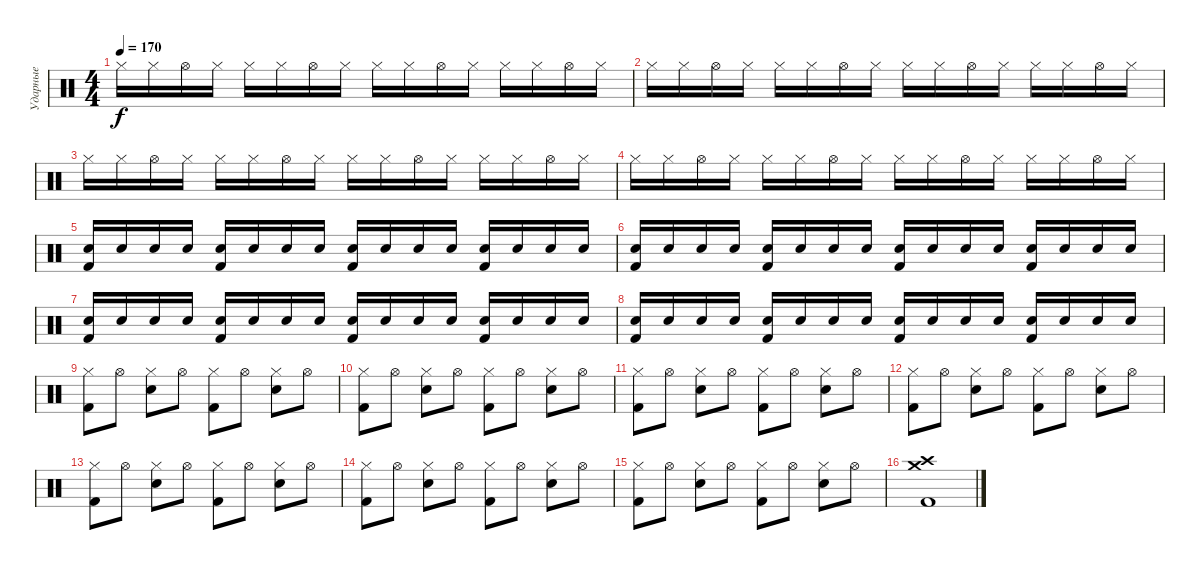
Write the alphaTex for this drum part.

\track ("Ударные" "Ударные") {instrument percussion}
\staff {score}
\articulation defaults
\ts (4 4)
\tempo 170
\clef neutral
\ks c "Hi-Hat (closed)".16{dy f} "Hi-Hat (closed)".16 "Hi-Hat (open)".16 "Hi-Hat (closed)".16 "Hi-Hat (closed)".16 "Hi-Hat (closed)".16 "Hi-Hat (open)".16 "Hi-Hat (closed)".16 "Hi-Hat (closed)".16 "Hi-Hat (closed)".16 "Hi-Hat (open)".16 "Hi-Hat (closed)".16 "Hi-Hat (closed)".16 "Hi-Hat (closed)".16 "Hi-Hat (open)".16 "Hi-Hat (closed)".16
|
"Hi-Hat (closed)".16 "Hi-Hat (closed)".16 "Hi-Hat (open)".16 "Hi-Hat (closed)".16 "Hi-Hat (closed)".16 "Hi-Hat (closed)".16 "Hi-Hat (open)".16 "Hi-Hat (closed)".16 "Hi-Hat (closed)".16 "Hi-Hat (closed)".16 "Hi-Hat (open)".16 "Hi-Hat (closed)".16 "Hi-Hat (closed)".16 "Hi-Hat (closed)".16 "Hi-Hat (open)".16 "Hi-Hat (closed)".16 |
"Hi-Hat (closed)".16 "Hi-Hat (closed)".16 "Hi-Hat (open)".16 "Hi-Hat (closed)".16 "Hi-Hat (closed)".16 "Hi-Hat (closed)".16 "Hi-Hat (open)".16 "Hi-Hat (closed)".16 "Hi-Hat (closed)".16 "Hi-Hat (closed)".16 "Hi-Hat (open)".16 "Hi-Hat (closed)".16 "Hi-Hat (closed)".16 "Hi-Hat (closed)".16 "Hi-Hat (open)".16 "Hi-Hat (closed)".16 |
"Hi-Hat (closed)".16 "Hi-Hat (closed)".16 "Hi-Hat (open)".16 "Hi-Hat (closed)".16 "Hi-Hat (closed)".16 "Hi-Hat (closed)".16 "Hi-Hat (open)".16 "Hi-Hat (closed)".16 "Hi-Hat (closed)".16 "Hi-Hat (closed)".16 "Hi-Hat (open)".16 "Hi-Hat (closed)".16 "Hi-Hat (closed)".16 "Hi-Hat (closed)".16 "Hi-Hat (open)".16 "Hi-Hat (closed)".16 |
("Kick (hit) 2" "Snare (hit) 2").16 "Snare (hit) 2".16 "Snare (hit) 2".16 "Snare (hit) 2".16 ("Kick (hit) 2" "Snare (hit) 2").16 "Snare (hit) 2".16 "Snare (hit) 2".16 "Snare (hit) 2".16 ("Kick (hit) 2" "Snare (hit) 2").16 "Snare (hit) 2".16 "Snare (hit) 2".16 "Snare (hit) 2".16 ("Kick (hit) 2" "Snare (hit) 2").16 "Snare (hit) 2".16 "Snare (hit) 2".16 "Snare (hit) 2".16 |
("Kick (hit) 2" "Snare (hit) 2").16 "Snare (hit) 2".16 "Snare (hit) 2".16 "Snare (hit) 2".16 ("Kick (hit) 2" "Snare (hit) 2").16 "Snare (hit) 2".16 "Snare (hit) 2".16 "Snare (hit) 2".16 ("Kick (hit) 2" "Snare (hit) 2").16 "Snare (hit) 2".16 "Snare (hit) 2".16 "Snare (hit) 2".16 ("Kick (hit) 2" "Snare (hit) 2").16 "Snare (hit) 2".16 "Snare (hit) 2".16 "Snare (hit) 2".16 |
("Kick (hit) 2" "Snare (hit) 2").16 "Snare (hit) 2".16 "Snare (hit) 2".16 "Snare (hit) 2".16 ("Kick (hit) 2" "Snare (hit) 2").16 "Snare (hit) 2".16 "Snare (hit) 2".16 "Snare (hit) 2".16 ("Kick (hit) 2" "Snare (hit) 2").16 "Snare (hit) 2".16 "Snare (hit) 2".16 "Snare (hit) 2".16 ("Kick (hit) 2" "Snare (hit) 2").16 "Snare (hit) 2".16 "Snare (hit) 2".16 "Snare (hit) 2".16 |
("Kick (hit) 2" "Snare (hit) 2").16 "Snare (hit) 2".16 "Snare (hit) 2".16 "Snare (hit) 2".16 ("Kick (hit) 2" "Snare (hit) 2").16 "Snare (hit) 2".16 "Snare (hit) 2".16 "Snare (hit) 2".16 ("Kick (hit) 2" "Snare (hit) 2").16 "Snare (hit) 2".16 "Snare (hit) 2".16 "Snare (hit) 2".16 ("Kick (hit) 2" "Snare (hit) 2").16 "Snare (hit) 2".16 "Snare (hit) 2".16 "Snare (hit) 2".16 |
("Hi-Hat (closed)" "Kick (hit) 2").8 "Hi-Hat (open)".8 ("Hi-Hat (closed)" "Snare (hit) 2").8 "Hi-Hat (open)".8 ("Hi-Hat (closed)" "Kick (hit) 2").8 "Hi-Hat (open)".8 ("Hi-Hat (closed)" "Snare (hit) 2").8 "Hi-Hat (open)".8 |
("Hi-Hat (closed)" "Kick (hit) 2").8 "Hi-Hat (open)".8 ("Hi-Hat (closed)" "Snare (hit) 2").8 "Hi-Hat (open)".8 ("Hi-Hat (closed)" "Kick (hit) 2").8 "Hi-Hat (open)".8 ("Hi-Hat (closed)" "Snare (hit) 2").8 "Hi-Hat (open)".8 |
("Hi-Hat (closed)" "Kick (hit) 2").8 "Hi-Hat (open)".8 ("Hi-Hat (closed)" "Snare (hit) 2").8 "Hi-Hat (open)".8 ("Hi-Hat (closed)" "Kick (hit) 2").8 "Hi-Hat (open)".8 ("Hi-Hat (closed)" "Snare (hit) 2").8 "Hi-Hat (open)".8 |
("Hi-Hat (closed)" "Kick (hit) 2").8 "Hi-Hat (open)".8 ("Hi-Hat (closed)" "Snare (hit) 2").8 "Hi-Hat (open)".8 ("Hi-Hat (closed)" "Kick (hit) 2").8 "Hi-Hat (open)".8 ("Hi-Hat (closed)" "Snare (hit) 2").8 "Hi-Hat (open)".8 |
("Hi-Hat (closed)" "Kick (hit) 2").8 "Hi-Hat (open)".8 ("Hi-Hat (closed)" "Snare (hit) 2").8 "Hi-Hat (open)".8 ("Hi-Hat (closed)" "Kick (hit) 2").8 "Hi-Hat (open)".8 ("Hi-Hat (closed)" "Snare (hit) 2").8 "Hi-Hat (open)".8 |
("Hi-Hat (closed)" "Kick (hit) 2").8 "Hi-Hat (open)".8 ("Hi-Hat (closed)" "Snare (hit) 2").8 "Hi-Hat (open)".8 ("Hi-Hat (closed)" "Kick (hit) 2").8 "Hi-Hat (open)".8 ("Hi-Hat (closed)" "Snare (hit) 2").8 "Hi-Hat (open)".8 |
("Hi-Hat (closed)" "Kick (hit) 2").8 "Hi-Hat (open)".8 ("Hi-Hat (closed)" "Snare (hit) 2").8 "Hi-Hat (open)".8 ("Hi-Hat (closed)" "Kick (hit) 2").8 "Hi-Hat (open)".8 ("Hi-Hat (closed)" "Snare (hit) 2").8 "Hi-Hat (open)".8 |
("Crash high (hit)" "Kick (hit) 2" "Crash medium (hit)").1
